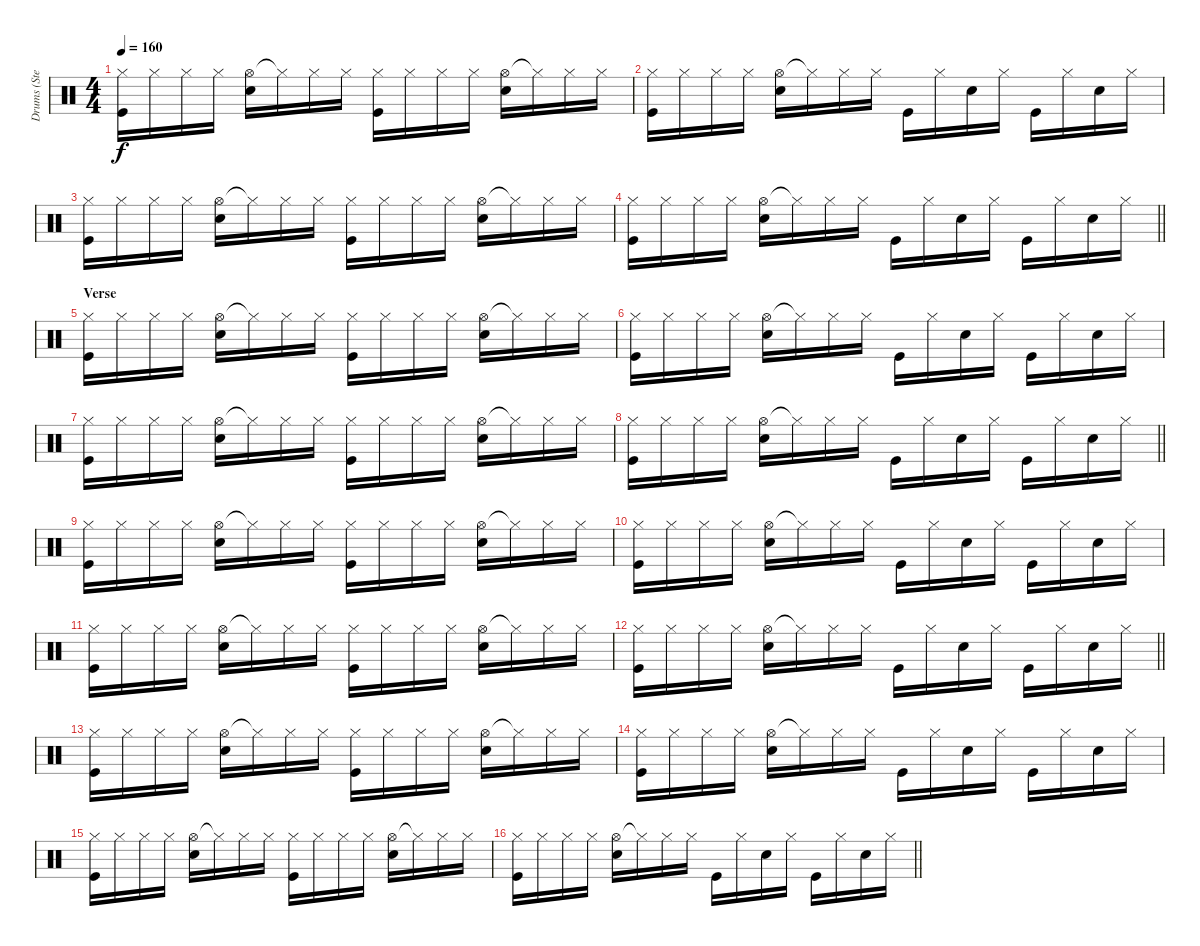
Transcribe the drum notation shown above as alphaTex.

\track ("Drums (Stephen Morris)" "Drums (Ste") {instrument percussion}
\staff {score}
\articulation defaults
\ts (4 4)
\tempo 160
\clef neutral
\ks c
("Hi-Hat (closed)" "Kick (hit)").16{dy f} "Hi-Hat (closed)".16 "Hi-Hat (closed)".16 "Hi-Hat (closed)".16 ("Hi-Hat (open)" "Electric Snare (hit)").16 "Hi-Hat (closed)"{t}.16 "Hi-Hat (closed)".16 "Hi-Hat (closed)".16 ("Hi-Hat (closed)" "Kick (hit)").16 "Hi-Hat (closed)".16 "Hi-Hat (closed)".16 "Hi-Hat (closed)".16 ("Hi-Hat (open)" "Electric Snare (hit)").16 "Hi-Hat (closed)"{t}.16 "Hi-Hat (closed)".16 "Hi-Hat (closed)".16 |
("Hi-Hat (closed)" "Kick (hit)").16 "Hi-Hat (closed)".16 "Hi-Hat (closed)".16 "Hi-Hat (closed)".16 ("Hi-Hat (open)" "Electric Snare (hit)").16 "Hi-Hat (closed)"{t}.16 "Hi-Hat (closed)".16 "Hi-Hat (closed)".16 "Kick (hit)".16 "Hi-Hat (closed)".16 "Electric Snare (hit)".16 "Hi-Hat (closed)".16 "Kick (hit)".16 "Hi-Hat (closed)".16 "Electric Snare (hit)".16 "Hi-Hat (closed)".16 |
("Hi-Hat (closed)" "Kick (hit)").16 "Hi-Hat (closed)".16 "Hi-Hat (closed)".16 "Hi-Hat (closed)".16 ("Hi-Hat (open)" "Electric Snare (hit)").16 "Hi-Hat (closed)"{t}.16 "Hi-Hat (closed)".16 "Hi-Hat (closed)".16 ("Hi-Hat (closed)" "Kick (hit)").16 "Hi-Hat (closed)".16 "Hi-Hat (closed)".16 "Hi-Hat (closed)".16 ("Hi-Hat (open)" "Electric Snare (hit)").16 "Hi-Hat (closed)"{t}.16 "Hi-Hat (closed)".16 "Hi-Hat (closed)".16 |
\barLineRight lightlight
("Hi-Hat (closed)" "Kick (hit)").16 "Hi-Hat (closed)".16 "Hi-Hat (closed)".16 "Hi-Hat (closed)".16 ("Hi-Hat (open)" "Electric Snare (hit)").16 "Hi-Hat (closed)"{t}.16 "Hi-Hat (closed)".16 "Hi-Hat (closed)".16 "Kick (hit)".16 "Hi-Hat (closed)".16 "Electric Snare (hit)".16 "Hi-Hat (closed)".16 "Kick (hit)".16 "Hi-Hat (closed)".16 "Electric Snare (hit)".16 "Hi-Hat (closed)".16 |
\section ("" "Verse")
("Hi-Hat (closed)" "Kick (hit)").16 "Hi-Hat (closed)".16 "Hi-Hat (closed)".16 "Hi-Hat (closed)".16 ("Hi-Hat (open)" "Electric Snare (hit)").16 "Hi-Hat (closed)"{t}.16 "Hi-Hat (closed)".16 "Hi-Hat (closed)".16 ("Hi-Hat (closed)" "Kick (hit)").16 "Hi-Hat (closed)".16 "Hi-Hat (closed)".16 "Hi-Hat (closed)".16 ("Hi-Hat (open)" "Electric Snare (hit)").16 "Hi-Hat (closed)"{t}.16 "Hi-Hat (closed)".16 "Hi-Hat (closed)".16 |
("Hi-Hat (closed)" "Kick (hit)").16 "Hi-Hat (closed)".16 "Hi-Hat (closed)".16 "Hi-Hat (closed)".16 ("Hi-Hat (open)" "Electric Snare (hit)").16 "Hi-Hat (closed)"{t}.16 "Hi-Hat (closed)".16 "Hi-Hat (closed)".16 "Kick (hit)".16 "Hi-Hat (closed)".16 "Electric Snare (hit)".16 "Hi-Hat (closed)".16 "Kick (hit)".16 "Hi-Hat (closed)".16 "Electric Snare (hit)".16 "Hi-Hat (closed)".16 |
("Hi-Hat (closed)" "Kick (hit)").16 "Hi-Hat (closed)".16 "Hi-Hat (closed)".16 "Hi-Hat (closed)".16 ("Hi-Hat (open)" "Electric Snare (hit)").16 "Hi-Hat (closed)"{t}.16 "Hi-Hat (closed)".16 "Hi-Hat (closed)".16 ("Hi-Hat (closed)" "Kick (hit)").16 "Hi-Hat (closed)".16 "Hi-Hat (closed)".16 "Hi-Hat (closed)".16 ("Hi-Hat (open)" "Electric Snare (hit)").16 "Hi-Hat (closed)"{t}.16 "Hi-Hat (closed)".16 "Hi-Hat (closed)".16 |
\barLineRight lightlight
("Hi-Hat (closed)" "Kick (hit)").16 "Hi-Hat (closed)".16 "Hi-Hat (closed)".16 "Hi-Hat (closed)".16 ("Hi-Hat (open)" "Electric Snare (hit)").16 "Hi-Hat (closed)"{t}.16 "Hi-Hat (closed)".16 "Hi-Hat (closed)".16 "Kick (hit)".16 "Hi-Hat (closed)".16 "Electric Snare (hit)".16 "Hi-Hat (closed)".16 "Kick (hit)".16 "Hi-Hat (closed)".16 "Electric Snare (hit)".16 "Hi-Hat (closed)".16 |
("Hi-Hat (closed)" "Kick (hit)").16 "Hi-Hat (closed)".16 "Hi-Hat (closed)".16 "Hi-Hat (closed)".16 ("Hi-Hat (open)" "Electric Snare (hit)").16 "Hi-Hat (closed)"{t}.16 "Hi-Hat (closed)".16 "Hi-Hat (closed)".16 ("Hi-Hat (closed)" "Kick (hit)").16 "Hi-Hat (closed)".16 "Hi-Hat (closed)".16 "Hi-Hat (closed)".16 ("Hi-Hat (open)" "Electric Snare (hit)").16 "Hi-Hat (closed)"{t}.16 "Hi-Hat (closed)".16 "Hi-Hat (closed)".16 |
("Hi-Hat (closed)" "Kick (hit)").16 "Hi-Hat (closed)".16 "Hi-Hat (closed)".16 "Hi-Hat (closed)".16 ("Hi-Hat (open)" "Electric Snare (hit)").16 "Hi-Hat (closed)"{t}.16 "Hi-Hat (closed)".16 "Hi-Hat (closed)".16 "Kick (hit)".16 "Hi-Hat (closed)".16 "Electric Snare (hit)".16 "Hi-Hat (closed)".16 "Kick (hit)".16 "Hi-Hat (closed)".16 "Electric Snare (hit)".16 "Hi-Hat (closed)".16 |
("Hi-Hat (closed)" "Kick (hit)").16 "Hi-Hat (closed)".16 "Hi-Hat (closed)".16 "Hi-Hat (closed)".16 ("Hi-Hat (open)" "Electric Snare (hit)").16 "Hi-Hat (closed)"{t}.16 "Hi-Hat (closed)".16 "Hi-Hat (closed)".16 ("Hi-Hat (closed)" "Kick (hit)").16 "Hi-Hat (closed)".16 "Hi-Hat (closed)".16 "Hi-Hat (closed)".16 ("Hi-Hat (open)" "Electric Snare (hit)").16 "Hi-Hat (closed)"{t}.16 "Hi-Hat (closed)".16 "Hi-Hat (closed)".16 |
\barLineRight lightlight
("Hi-Hat (closed)" "Kick (hit)").16 "Hi-Hat (closed)".16 "Hi-Hat (closed)".16 "Hi-Hat (closed)".16 ("Hi-Hat (open)" "Electric Snare (hit)").16 "Hi-Hat (closed)"{t}.16 "Hi-Hat (closed)".16 "Hi-Hat (closed)".16 "Kick (hit)".16 "Hi-Hat (closed)".16 "Electric Snare (hit)".16 "Hi-Hat (closed)".16 "Kick (hit)".16 "Hi-Hat (closed)".16 "Electric Snare (hit)".16 "Hi-Hat (closed)".16 |
("Hi-Hat (closed)" "Kick (hit)").16 "Hi-Hat (closed)".16 "Hi-Hat (closed)".16 "Hi-Hat (closed)".16 ("Hi-Hat (open)" "Electric Snare (hit)").16 "Hi-Hat (closed)"{t}.16 "Hi-Hat (closed)".16 "Hi-Hat (closed)".16 ("Hi-Hat (closed)" "Kick (hit)").16 "Hi-Hat (closed)".16 "Hi-Hat (closed)".16 "Hi-Hat (closed)".16 ("Hi-Hat (open)" "Electric Snare (hit)").16 "Hi-Hat (closed)"{t}.16 "Hi-Hat (closed)".16 "Hi-Hat (closed)".16 |
("Hi-Hat (closed)" "Kick (hit)").16 "Hi-Hat (closed)".16 "Hi-Hat (closed)".16 "Hi-Hat (closed)".16 ("Hi-Hat (open)" "Electric Snare (hit)").16 "Hi-Hat (closed)"{t}.16 "Hi-Hat (closed)".16 "Hi-Hat (closed)".16 "Kick (hit)".16 "Hi-Hat (closed)".16 "Electric Snare (hit)".16 "Hi-Hat (closed)".16 "Kick (hit)".16 "Hi-Hat (closed)".16 "Electric Snare (hit)".16 "Hi-Hat (closed)".16 |
("Hi-Hat (closed)" "Kick (hit)").16 "Hi-Hat (closed)".16 "Hi-Hat (closed)".16 "Hi-Hat (closed)".16 ("Hi-Hat (open)" "Electric Snare (hit)").16 "Hi-Hat (closed)"{t}.16 "Hi-Hat (closed)".16 "Hi-Hat (closed)".16 ("Hi-Hat (closed)" "Kick (hit)").16 "Hi-Hat (closed)".16 "Hi-Hat (closed)".16 "Hi-Hat (closed)".16 ("Hi-Hat (open)" "Electric Snare (hit)").16 "Hi-Hat (closed)"{t}.16 "Hi-Hat (closed)".16 "Hi-Hat (closed)".16 |
\barLineRight lightlight
("Hi-Hat (closed)" "Kick (hit)").16 "Hi-Hat (closed)".16 "Hi-Hat (closed)".16 "Hi-Hat (closed)".16 ("Hi-Hat (open)" "Electric Snare (hit)").16 "Hi-Hat (closed)"{t}.16 "Hi-Hat (closed)".16 "Hi-Hat (closed)".16 "Kick (hit)".16 "Hi-Hat (closed)".16 "Electric Snare (hit)".16 "Hi-Hat (closed)".16 "Kick (hit)".16 "Hi-Hat (closed)".16 "Electric Snare (hit)".16 "Hi-Hat (closed)".16
